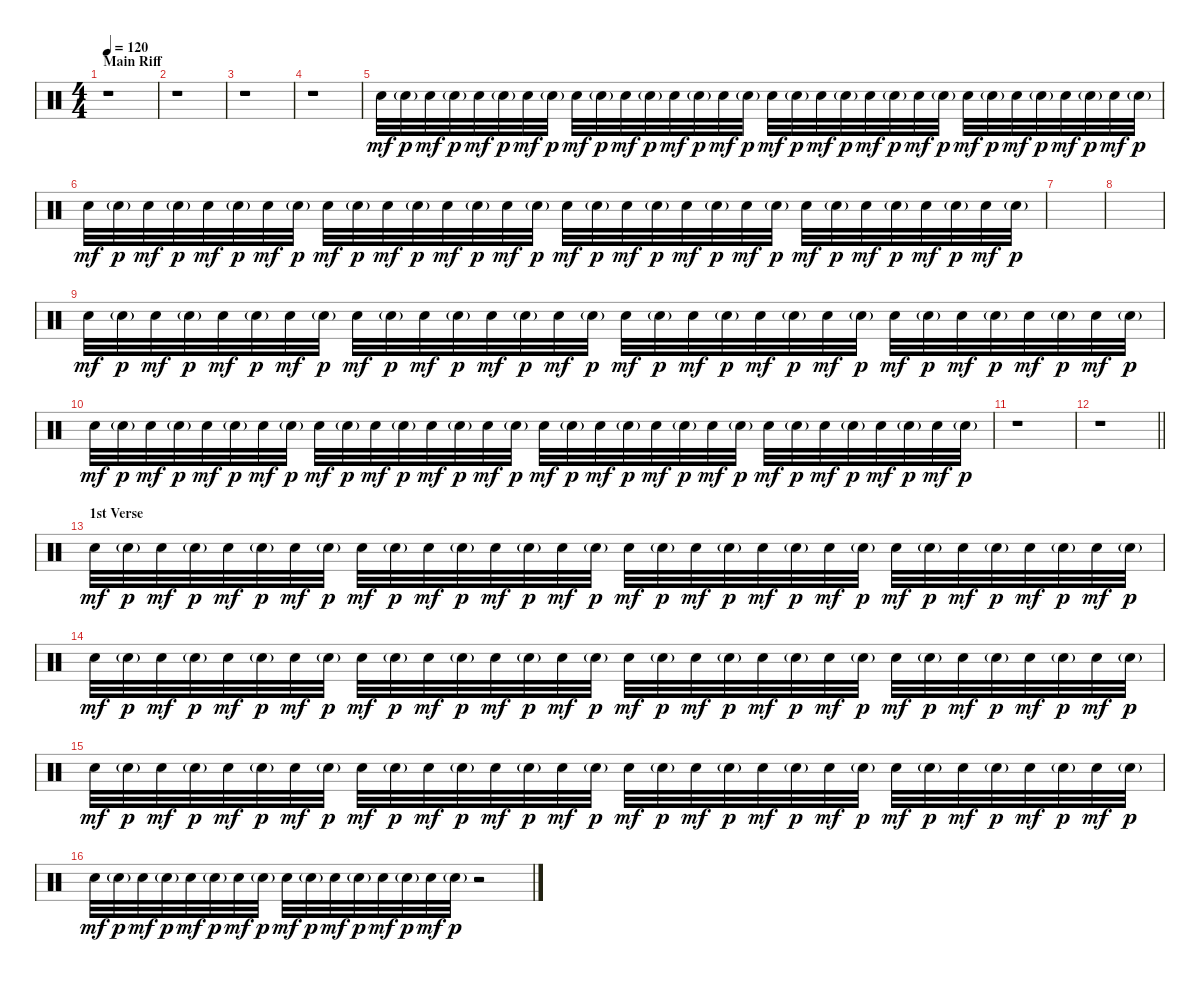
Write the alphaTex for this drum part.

\track "" {instrument percussion}
\staff {score}
\articulation defaults
\ts (4 4)
\section ("" "Main Riff")
\tempo 120
\clef neutral
\ks c
r.1{dy mf} |
r.1 |
r.1 |
r.1 |
"Electric Snare (hit)".32 "Electric Snare (hit)"{g}.32{dy p} "Electric Snare (hit)".32{dy mf} "Electric Snare (hit)"{g}.32{dy p} "Electric Snare (hit)".32{dy mf} "Electric Snare (hit)"{g}.32{dy p} "Electric Snare (hit)".32{dy mf} "Electric Snare (hit)"{g}.32{dy p} "Electric Snare (hit)".32{dy mf} "Electric Snare (hit)"{g}.32{dy p} "Electric Snare (hit)".32{dy mf} "Electric Snare (hit)"{g}.32{dy p} "Electric Snare (hit)".32{dy mf} "Electric Snare (hit)"{g}.32{dy p} "Electric Snare (hit)".32{dy mf} "Electric Snare (hit)"{g}.32{dy p} "Electric Snare (hit)".32{dy mf} "Electric Snare (hit)"{g}.32{dy p} "Electric Snare (hit)".32{dy mf} "Electric Snare (hit)"{g}.32{dy p} "Electric Snare (hit)".32{dy mf} "Electric Snare (hit)"{g}.32{dy p} "Electric Snare (hit)".32{dy mf} "Electric Snare (hit)"{g}.32{dy p} "Electric Snare (hit)".32{dy mf} "Electric Snare (hit)"{g}.32{dy p} "Electric Snare (hit)".32{dy mf} "Electric Snare (hit)"{g}.32{dy p} "Electric Snare (hit)".32{dy mf} "Electric Snare (hit)"{g}.32{dy p} "Electric Snare (hit)".32{dy mf} "Electric Snare (hit)"{g}.32{dy p} |
"Electric Snare (hit)".32{dy mf} "Electric Snare (hit)"{g}.32{dy p} "Electric Snare (hit)".32{dy mf} "Electric Snare (hit)"{g}.32{dy p} "Electric Snare (hit)".32{dy mf} "Electric Snare (hit)"{g}.32{dy p} "Electric Snare (hit)".32{dy mf} "Electric Snare (hit)"{g}.32{dy p} "Electric Snare (hit)".32{dy mf} "Electric Snare (hit)"{g}.32{dy p} "Electric Snare (hit)".32{dy mf} "Electric Snare (hit)"{g}.32{dy p} "Electric Snare (hit)".32{dy mf} "Electric Snare (hit)"{g}.32{dy p} "Electric Snare (hit)".32{dy mf} "Electric Snare (hit)"{g}.32{dy p} "Electric Snare (hit)".32{dy mf} "Electric Snare (hit)"{g}.32{dy p} "Electric Snare (hit)".32{dy mf} "Electric Snare (hit)"{g}.32{dy p} "Electric Snare (hit)".32{dy mf} "Electric Snare (hit)"{g}.32{dy p} "Electric Snare (hit)".32{dy mf} "Electric Snare (hit)"{g}.32{dy p} "Electric Snare (hit)".32{dy mf} "Electric Snare (hit)"{g}.32{dy p} "Electric Snare (hit)".32{dy mf} "Electric Snare (hit)"{g}.32{dy p} "Electric Snare (hit)".32{dy mf} "Electric Snare (hit)"{g}.32{dy p} "Electric Snare (hit)".32{dy mf} "Electric Snare (hit)"{g}.32{dy p} |
|
|
"Electric Snare (hit)".32{dy mf} "Electric Snare (hit)"{g}.32{dy p} "Electric Snare (hit)".32{dy mf} "Electric Snare (hit)"{g}.32{dy p} "Electric Snare (hit)".32{dy mf} "Electric Snare (hit)"{g}.32{dy p} "Electric Snare (hit)".32{dy mf} "Electric Snare (hit)"{g}.32{dy p} "Electric Snare (hit)".32{dy mf} "Electric Snare (hit)"{g}.32{dy p} "Electric Snare (hit)".32{dy mf} "Electric Snare (hit)"{g}.32{dy p} "Electric Snare (hit)".32{dy mf} "Electric Snare (hit)"{g}.32{dy p} "Electric Snare (hit)".32{dy mf} "Electric Snare (hit)"{g}.32{dy p} "Electric Snare (hit)".32{dy mf} "Electric Snare (hit)"{g}.32{dy p} "Electric Snare (hit)".32{dy mf} "Electric Snare (hit)"{g}.32{dy p} "Electric Snare (hit)".32{dy mf} "Electric Snare (hit)"{g}.32{dy p} "Electric Snare (hit)".32{dy mf} "Electric Snare (hit)"{g}.32{dy p} "Electric Snare (hit)".32{dy mf} "Electric Snare (hit)"{g}.32{dy p} "Electric Snare (hit)".32{dy mf} "Electric Snare (hit)"{g}.32{dy p} "Electric Snare (hit)".32{dy mf} "Electric Snare (hit)"{g}.32{dy p} "Electric Snare (hit)".32{dy mf} "Electric Snare (hit)"{g}.32{dy p} |
"Electric Snare (hit)".32{dy mf} "Electric Snare (hit)"{g}.32{dy p} "Electric Snare (hit)".32{dy mf} "Electric Snare (hit)"{g}.32{dy p} "Electric Snare (hit)".32{dy mf} "Electric Snare (hit)"{g}.32{dy p} "Electric Snare (hit)".32{dy mf} "Electric Snare (hit)"{g}.32{dy p} "Electric Snare (hit)".32{dy mf} "Electric Snare (hit)"{g}.32{dy p} "Electric Snare (hit)".32{dy mf} "Electric Snare (hit)"{g}.32{dy p} "Electric Snare (hit)".32{dy mf} "Electric Snare (hit)"{g}.32{dy p} "Electric Snare (hit)".32{dy mf} "Electric Snare (hit)"{g}.32{dy p} "Electric Snare (hit)".32{dy mf} "Electric Snare (hit)"{g}.32{dy p} "Electric Snare (hit)".32{dy mf} "Electric Snare (hit)"{g}.32{dy p} "Electric Snare (hit)".32{dy mf} "Electric Snare (hit)"{g}.32{dy p} "Electric Snare (hit)".32{dy mf} "Electric Snare (hit)"{g}.32{dy p} "Electric Snare (hit)".32{dy mf} "Electric Snare (hit)"{g}.32{dy p} "Electric Snare (hit)".32{dy mf} "Electric Snare (hit)"{g}.32{dy p} "Electric Snare (hit)".32{dy mf} "Electric Snare (hit)"{g}.32{dy p} "Electric Snare (hit)".32{dy mf} "Electric Snare (hit)"{g}.32{dy p} |
r.1 |
\barLineRight lightlight
r.1 |
\section ("" "1st Verse")
"Electric Snare (hit)".32{dy mf} "Electric Snare (hit)"{g}.32{dy p} "Electric Snare (hit)".32{dy mf} "Electric Snare (hit)"{g}.32{dy p} "Electric Snare (hit)".32{dy mf} "Electric Snare (hit)"{g}.32{dy p} "Electric Snare (hit)".32{dy mf} "Electric Snare (hit)"{g}.32{dy p} "Electric Snare (hit)".32{dy mf} "Electric Snare (hit)"{g}.32{dy p} "Electric Snare (hit)".32{dy mf} "Electric Snare (hit)"{g}.32{dy p} "Electric Snare (hit)".32{dy mf} "Electric Snare (hit)"{g}.32{dy p} "Electric Snare (hit)".32{dy mf} "Electric Snare (hit)"{g}.32{dy p} "Electric Snare (hit)".32{dy mf} "Electric Snare (hit)"{g}.32{dy p} "Electric Snare (hit)".32{dy mf} "Electric Snare (hit)"{g}.32{dy p} "Electric Snare (hit)".32{dy mf} "Electric Snare (hit)"{g}.32{dy p} "Electric Snare (hit)".32{dy mf} "Electric Snare (hit)"{g}.32{dy p} "Electric Snare (hit)".32{dy mf} "Electric Snare (hit)"{g}.32{dy p} "Electric Snare (hit)".32{dy mf} "Electric Snare (hit)"{g}.32{dy p} "Electric Snare (hit)".32{dy mf} "Electric Snare (hit)"{g}.32{dy p} "Electric Snare (hit)".32{dy mf} "Electric Snare (hit)"{g}.32{dy p} |
"Electric Snare (hit)".32{dy mf} "Electric Snare (hit)"{g}.32{dy p} "Electric Snare (hit)".32{dy mf} "Electric Snare (hit)"{g}.32{dy p} "Electric Snare (hit)".32{dy mf} "Electric Snare (hit)"{g}.32{dy p} "Electric Snare (hit)".32{dy mf} "Electric Snare (hit)"{g}.32{dy p} "Electric Snare (hit)".32{dy mf} "Electric Snare (hit)"{g}.32{dy p} "Electric Snare (hit)".32{dy mf} "Electric Snare (hit)"{g}.32{dy p} "Electric Snare (hit)".32{dy mf} "Electric Snare (hit)"{g}.32{dy p} "Electric Snare (hit)".32{dy mf} "Electric Snare (hit)"{g}.32{dy p} "Electric Snare (hit)".32{dy mf} "Electric Snare (hit)"{g}.32{dy p} "Electric Snare (hit)".32{dy mf} "Electric Snare (hit)"{g}.32{dy p} "Electric Snare (hit)".32{dy mf} "Electric Snare (hit)"{g}.32{dy p} "Electric Snare (hit)".32{dy mf} "Electric Snare (hit)"{g}.32{dy p} "Electric Snare (hit)".32{dy mf} "Electric Snare (hit)"{g}.32{dy p} "Electric Snare (hit)".32{dy mf} "Electric Snare (hit)"{g}.32{dy p} "Electric Snare (hit)".32{dy mf} "Electric Snare (hit)"{g}.32{dy p} "Electric Snare (hit)".32{dy mf} "Electric Snare (hit)"{g}.32{dy p} |
"Electric Snare (hit)".32{dy mf} "Electric Snare (hit)"{g}.32{dy p} "Electric Snare (hit)".32{dy mf} "Electric Snare (hit)"{g}.32{dy p} "Electric Snare (hit)".32{dy mf} "Electric Snare (hit)"{g}.32{dy p} "Electric Snare (hit)".32{dy mf} "Electric Snare (hit)"{g}.32{dy p} "Electric Snare (hit)".32{dy mf} "Electric Snare (hit)"{g}.32{dy p} "Electric Snare (hit)".32{dy mf} "Electric Snare (hit)"{g}.32{dy p} "Electric Snare (hit)".32{dy mf} "Electric Snare (hit)"{g}.32{dy p} "Electric Snare (hit)".32{dy mf} "Electric Snare (hit)"{g}.32{dy p} "Electric Snare (hit)".32{dy mf} "Electric Snare (hit)"{g}.32{dy p} "Electric Snare (hit)".32{dy mf} "Electric Snare (hit)"{g}.32{dy p} "Electric Snare (hit)".32{dy mf} "Electric Snare (hit)"{g}.32{dy p} "Electric Snare (hit)".32{dy mf} "Electric Snare (hit)"{g}.32{dy p} "Electric Snare (hit)".32{dy mf} "Electric Snare (hit)"{g}.32{dy p} "Electric Snare (hit)".32{dy mf} "Electric Snare (hit)"{g}.32{dy p} "Electric Snare (hit)".32{dy mf} "Electric Snare (hit)"{g}.32{dy p} "Electric Snare (hit)".32{dy mf} "Electric Snare (hit)"{g}.32{dy p} |
"Electric Snare (hit)".32{dy mf} "Electric Snare (hit)"{g}.32{dy p} "Electric Snare (hit)".32{dy mf} "Electric Snare (hit)"{g}.32{dy p} "Electric Snare (hit)".32{dy mf} "Electric Snare (hit)"{g}.32{dy p} "Electric Snare (hit)".32{dy mf} "Electric Snare (hit)"{g}.32{dy p} "Electric Snare (hit)".32{dy mf} "Electric Snare (hit)"{g}.32{dy p} "Electric Snare (hit)".32{dy mf} "Electric Snare (hit)"{g}.32{dy p} "Electric Snare (hit)".32{dy mf} "Electric Snare (hit)"{g}.32{dy p} "Electric Snare (hit)".32{dy mf} "Electric Snare (hit)"{g}.32{dy p} r.2
